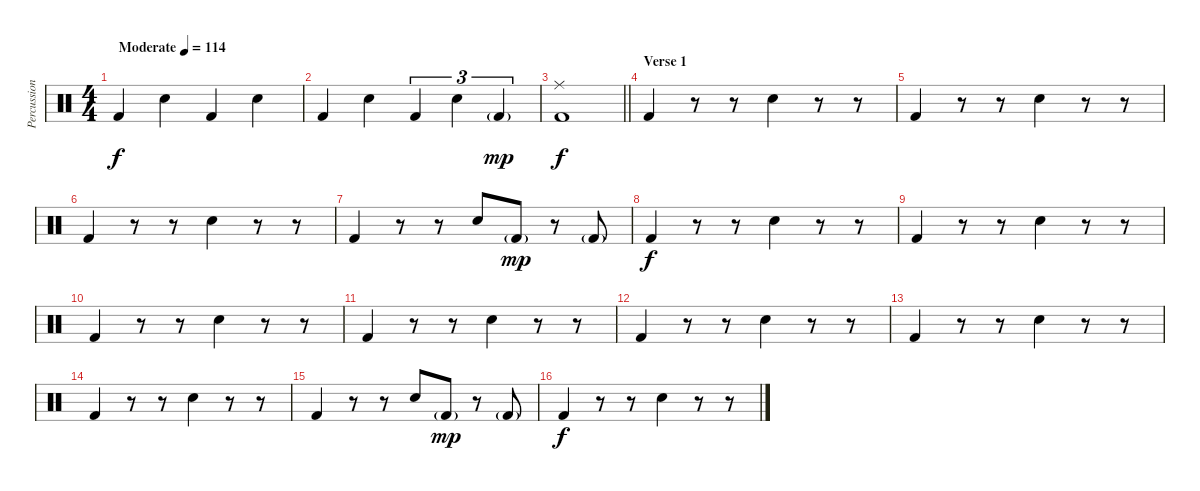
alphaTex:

\track ("Percussion" "Percussion") {instrument percussion}
\staff {score}
\articulation defaults
\ts (4 4)
\tempo (114 "Moderate")
\clef neutral
\ks c "Kick (hit) 2".4{dy f} "Snare (hit) 2".4 "Kick (hit) 2".4 "Snare (hit) 2".4
|
"Kick (hit) 2".4 "Snare (hit) 2".4 "Kick (hit) 2".4{tu (3 2)} "Snare (hit) 2".4{tu (3 2)} "Kick (hit) 2"{g}.4{tu (3 2) dy mp} |
\barLineRight lightlight
("Ride (middle)" "Kick (hit) 2").1{dy f} |
\section ("" "Verse 1")
"Kick (hit) 2".4 r.8 r.8 "Snare (hit) 2".4 r.8 r.8 |
"Kick (hit) 2".4 r.8 r.8 "Snare (hit) 2".4 r.8 r.8 |
"Kick (hit) 2".4 r.8 r.8 "Snare (hit) 2".4 r.8 r.8 |
"Kick (hit) 2".4 r.8 r.8 "Snare (hit) 2".8 "Kick (hit) 2"{g}.8{dy mp} r.8 "Kick (hit) 2"{g}.8 |
"Kick (hit) 2".4{dy f} r.8 r.8 "Snare (hit) 2".4 r.8 r.8 |
"Kick (hit) 2".4 r.8 r.8 "Snare (hit) 2".4 r.8 r.8 |
"Kick (hit) 2".4 r.8 r.8 "Snare (hit) 2".4 r.8 r.8 |
"Kick (hit) 2".4 r.8 r.8 "Snare (hit) 2".4 r.8 r.8 |
"Kick (hit) 2".4 r.8 r.8 "Snare (hit) 2".4 r.8 r.8 |
"Kick (hit) 2".4 r.8 r.8 "Snare (hit) 2".4 r.8 r.8 |
"Kick (hit) 2".4 r.8 r.8 "Snare (hit) 2".4 r.8 r.8 |
"Kick (hit) 2".4 r.8 r.8 "Snare (hit) 2".8 "Kick (hit) 2"{g}.8{dy mp} r.8 "Kick (hit) 2"{g}.8 |
"Kick (hit) 2".4{dy f} r.8 r.8 "Snare (hit) 2".4 r.8 r.8
